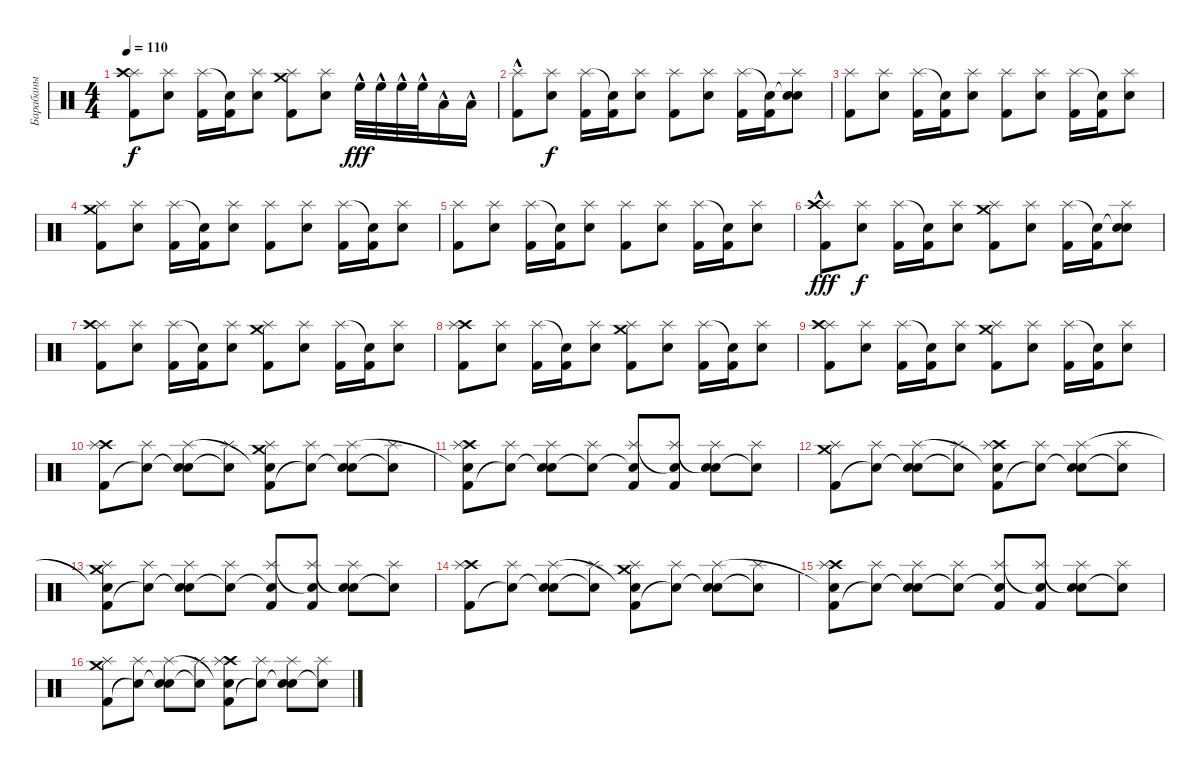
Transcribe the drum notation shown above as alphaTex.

\track ("Барабаны" "Барабаны") {instrument percussion}
\staff {score}
\articulation defaults
\ts (4 4)
\tempo 110
\clef neutral
\ks c
("Kick (hit) 2" "Splash (hit)" "Crash high (hit)").8{dy f} ("Electric Snare (hit)" "Splash (hit)").8 ("Kick (hit) 2" "Splash (hit)").16 ("Kick (hit) 2" "Snare (hit)"{t}).16 ("Electric Snare (hit)" "Splash (hit)").8 ("Kick (hit) 2" "Crash medium (hit)" "Splash (hit)").8 ("Electric Snare (hit)" "Splash (hit)").8 "High Floor Tom (hit)"{hac}.32{dy fff} "High Floor Tom (hit)"{hac}.32 "High Floor Tom (hit)"{hac}.32 "High Floor Tom (hit)"{hac}.32 "Low Tom (hit)"{hac}.16 "Low Tom (hit)"{hac}.16 |
("Kick (hit) 2" "Splash (hit)"{hac}).8 ("Electric Snare (hit)" "Splash (hit)").8{dy f} ("Kick (hit) 2" "Splash (hit)").16 ("Kick (hit) 2" "Snare (hit)"{t}).16 ("Electric Snare (hit)" "Splash (hit)").8 ("Kick (hit) 2" "Splash (hit)").8 ("Electric Snare (hit)" "Splash (hit)").8 ("Kick (hit) 2" "Splash (hit)").16 ("Kick (hit) 2" "Snare (hit)"{t}).16 ("Electric Snare (hit)" "Snare (hit)"{t} "Splash (hit)").8 |
("Kick (hit) 2" "Splash (hit)").8 ("Electric Snare (hit)" "Splash (hit)").8 ("Kick (hit) 2" "Splash (hit)").16 ("Kick (hit) 2" "Snare (hit)"{t}).16 ("Electric Snare (hit)" "Splash (hit)").8 ("Kick (hit) 2" "Splash (hit)").8 ("Electric Snare (hit)" "Splash (hit)").8 ("Kick (hit) 2" "Splash (hit)").16 ("Kick (hit) 2" "Snare (hit)"{t}).16 ("Electric Snare (hit)" "Splash (hit)").8 |
("Kick (hit) 2" "Crash medium (hit)" "Splash (hit)").8 ("Electric Snare (hit)" "Splash (hit)").8 ("Kick (hit) 2" "Splash (hit)").16 ("Kick (hit) 2" "Snare (hit)"{t}).16 ("Electric Snare (hit)" "Splash (hit)").8 ("Kick (hit) 2" "Splash (hit)").8 ("Electric Snare (hit)" "Splash (hit)").8 ("Kick (hit) 2" "Splash (hit)").16 ("Kick (hit) 2" "Snare (hit)"{t}).16 ("Electric Snare (hit)" "Splash (hit)").8 |
("Kick (hit) 2" "Splash (hit)").8 ("Electric Snare (hit)" "Splash (hit)").8 ("Kick (hit) 2" "Splash (hit)").16 ("Kick (hit) 2" "Snare (hit)"{t}).16 ("Electric Snare (hit)" "Splash (hit)").8 ("Kick (hit) 2" "Splash (hit)").8 ("Electric Snare (hit)" "Splash (hit)").8 ("Kick (hit) 2" "Splash (hit)").16 ("Kick (hit) 2" "Snare (hit)"{t}).16 ("Electric Snare (hit)" "Splash (hit)").8 |
("Kick (hit) 2" "Splash (hit)"{hac} "Crash high (hit)").8{dy fff} ("Electric Snare (hit)" "Splash (hit)").8{dy f} ("Kick (hit) 2" "Splash (hit)").16 ("Kick (hit) 2" "Snare (hit)"{t}).16 ("Electric Snare (hit)" "Splash (hit)").8 ("Kick (hit) 2" "Crash medium (hit)" "Splash (hit)").8 ("Electric Snare (hit)" "Splash (hit)").8 ("Kick (hit) 2" "Splash (hit)").16 ("Kick (hit) 2" "Snare (hit)"{t}).16 ("Electric Snare (hit)" "Snare (hit)"{t} "Splash (hit)").8 |
("Kick (hit) 2" "Splash (hit)" "Crash high (hit)").8 ("Electric Snare (hit)" "Splash (hit)").8 ("Kick (hit) 2" "Splash (hit)").16 ("Kick (hit) 2" "Snare (hit)"{t}).16 ("Electric Snare (hit)" "Splash (hit)").8 ("Kick (hit) 2" "Crash medium (hit)" "Splash (hit)").8 ("Electric Snare (hit)" "Splash (hit)").8 ("Kick (hit) 2" "Splash (hit)").16 ("Kick (hit) 2" "Snare (hit)"{t}).16 ("Electric Snare (hit)" "Splash (hit)").8 |
("Kick (hit) 2" "Crash high (hit)" "Splash (hit)").8 ("Electric Snare (hit)" "Splash (hit)").8 ("Kick (hit) 2" "Splash (hit)").16 ("Kick (hit) 2" "Snare (hit)"{t}).16 ("Electric Snare (hit)" "Splash (hit)").8 ("Kick (hit) 2" "Crash medium (hit)" "Splash (hit)").8 ("Electric Snare (hit)" "Splash (hit)").8 ("Kick (hit) 2" "Splash (hit)").16 ("Kick (hit) 2" "Snare (hit)"{t}).16 ("Electric Snare (hit)" "Splash (hit)").8 |
("Kick (hit) 2" "Splash (hit)" "Crash high (hit)").8 ("Electric Snare (hit)" "Splash (hit)").8 ("Kick (hit) 2" "Splash (hit)").16 ("Kick (hit) 2" "Snare (hit)"{t}).16 ("Electric Snare (hit)" "Splash (hit)").8 ("Kick (hit) 2" "Crash medium (hit)" "Splash (hit)").8 ("Electric Snare (hit)" "Splash (hit)").8 ("Kick (hit) 2" "Splash (hit)").16 ("Kick (hit) 2" "Snare (hit)"{t}).16 ("Electric Snare (hit)" "Splash (hit)").8 |
("Crash high (hit)" "Kick (hit) 2" "Splash (hit)").8 ("Splash (hit)" "Snare (hit)"{t}).8 ("Electric Snare (hit)" "Snare (hit)"{t} "Splash (hit)").8 ("Splash (hit)" "Snare (hit)"{t}).8 ("Crash medium (hit)" "Kick (hit) 2" "Snare (hit)"{t} "Splash (hit)").8 ("Splash (hit)" "Snare (hit)"{t}).8 ("Electric Snare (hit)" "Snare (hit)"{t} "Splash (hit)").8 ("Splash (hit)" "Snare (hit)"{t}).8 |
("Crash high (hit)" "Kick (hit) 2" "Snare (hit)"{t} "Splash (hit)").8 ("Splash (hit)" "Snare (hit)"{t}).8 ("Electric Snare (hit)" "Snare (hit)"{t} "Splash (hit)").8 ("Splash (hit)" "Snare (hit)"{t}).8 ("Kick (hit) 2" "Snare (hit)"{t} "Splash (hit)").8 ("Kick (hit) 2" "Splash (hit)" "Snare (hit)"{t}).8 ("Electric Snare (hit)" "Snare (hit)"{t} "Splash (hit)").8 ("Splash (hit)" "Snare (hit)"{t}).8 |
("Crash medium (hit)" "Kick (hit) 2" "Splash (hit)").8 ("Splash (hit)" "Snare (hit)"{t}).8 ("Electric Snare (hit)" "Snare (hit)"{t} "Splash (hit)").8 ("Splash (hit)" "Snare (hit)"{t}).8 ("Crash high (hit)" "Kick (hit) 2" "Snare (hit)"{t} "Splash (hit)").8 ("Splash (hit)" "Snare (hit)"{t}).8 ("Electric Snare (hit)" "Snare (hit)"{t} "Splash (hit)").8 ("Splash (hit)" "Snare (hit)"{t}).8 |
("Crash medium (hit)" "Kick (hit) 2" "Snare (hit)"{t} "Splash (hit)").8 ("Splash (hit)" "Snare (hit)"{t}).8 ("Electric Snare (hit)" "Snare (hit)"{t} "Splash (hit)").8 ("Splash (hit)" "Snare (hit)"{t}).8 ("Kick (hit) 2" "Snare (hit)"{t} "Splash (hit)").8 ("Kick (hit) 2" "Splash (hit)" "Snare (hit)"{t}).8 ("Electric Snare (hit)" "Snare (hit)"{t} "Splash (hit)").8 ("Splash (hit)" "Snare (hit)"{t}).8 |
("Crash high (hit)" "Kick (hit) 2" "Splash (hit)").8 ("Splash (hit)" "Snare (hit)"{t}).8 ("Electric Snare (hit)" "Snare (hit)"{t} "Splash (hit)").8 ("Splash (hit)" "Snare (hit)"{t}).8 ("Crash medium (hit)" "Kick (hit) 2" "Snare (hit)"{t} "Splash (hit)").8 ("Splash (hit)" "Snare (hit)"{t}).8 ("Electric Snare (hit)" "Snare (hit)"{t} "Splash (hit)").8 ("Splash (hit)" "Snare (hit)"{t}).8 |
("Crash high (hit)" "Kick (hit) 2" "Snare (hit)"{t} "Splash (hit)").8 ("Splash (hit)" "Snare (hit)"{t}).8 ("Electric Snare (hit)" "Snare (hit)"{t} "Splash (hit)").8 ("Splash (hit)" "Snare (hit)"{t}).8 ("Kick (hit) 2" "Snare (hit)"{t} "Splash (hit)").8 ("Kick (hit) 2" "Splash (hit)" "Snare (hit)"{t}).8 ("Electric Snare (hit)" "Snare (hit)"{t} "Splash (hit)").8 ("Splash (hit)" "Snare (hit)"{t}).8 |
("Crash medium (hit)" "Kick (hit) 2" "Splash (hit)").8 ("Splash (hit)" "Snare (hit)"{t}).8 ("Electric Snare (hit)" "Snare (hit)"{t} "Splash (hit)").8 ("Splash (hit)" "Snare (hit)"{t}).8 ("Crash high (hit)" "Kick (hit) 2" "Snare (hit)"{t} "Splash (hit)").8 ("Splash (hit)" "Snare (hit)"{t}).8 ("Electric Snare (hit)" "Snare (hit)"{t} "Splash (hit)").8 ("Splash (hit)" "Snare (hit)"{t}).8
